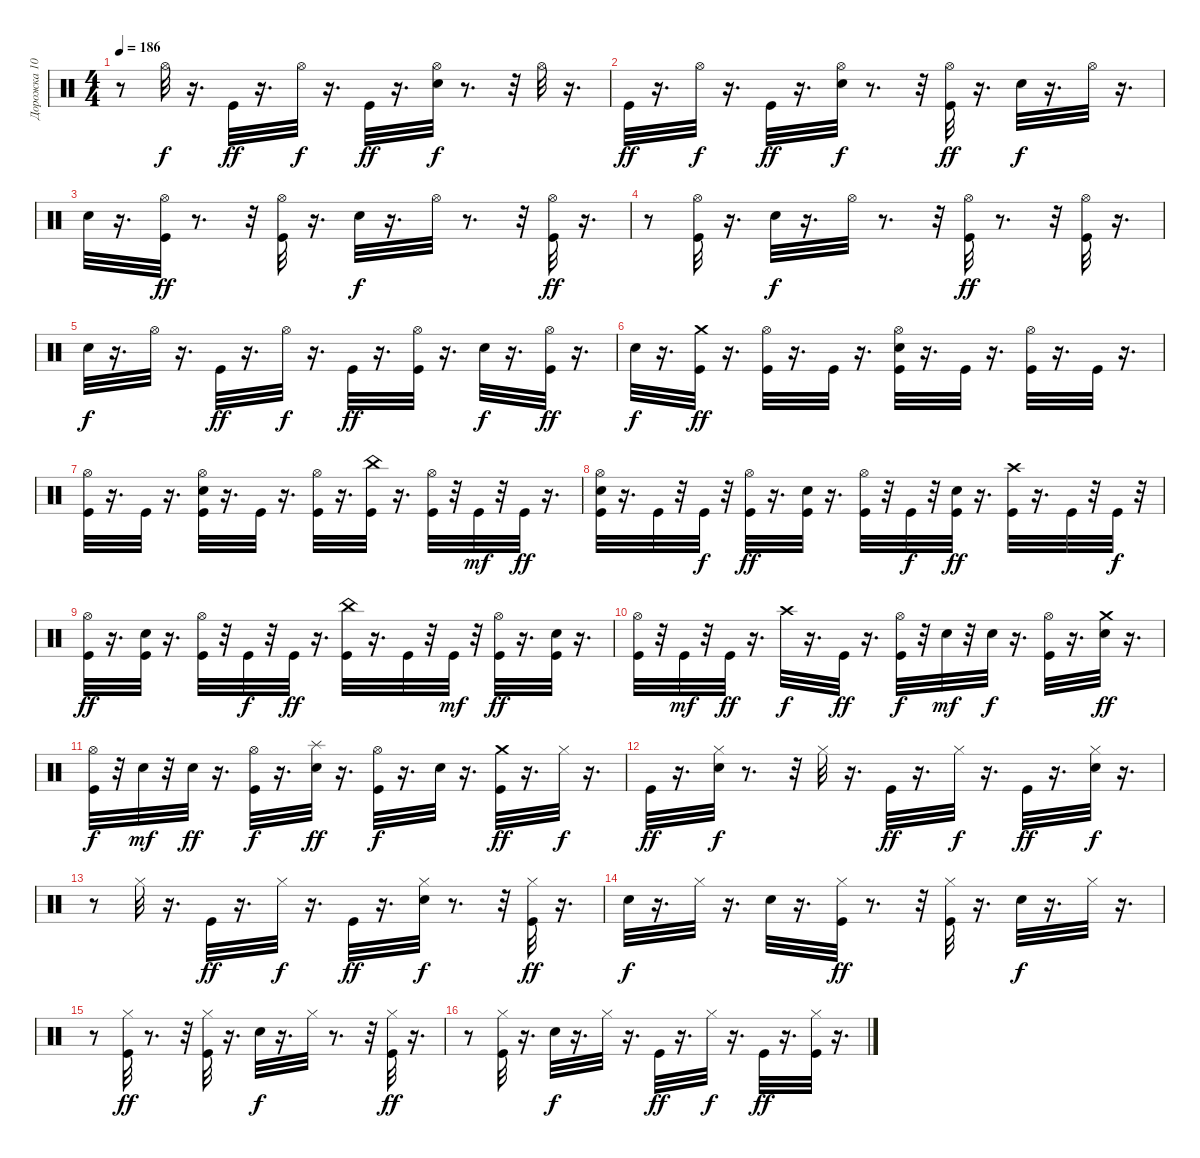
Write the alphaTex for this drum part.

\track ("Дорожка 10" "Дорожка 10") {instrument percussion}
\staff {score}
\articulation defaults
\ts (4 4)
\tempo 186
\clef neutral
\ks c
r.8{dy f} "Hi-Hat (open)".32 r.16{d} "Kick (hit)".32{dy ff} r.16{d} "Hi-Hat (open)".32{dy f} r.16{d} "Kick (hit)".32{dy ff} r.16{d} ("Electric Snare (hit)" "Hi-Hat (open)").32{dy f} r.8{d} r.32 "Hi-Hat (open)".32 r.16{d} |
"Kick (hit)".32{dy ff} r.16{d} "Hi-Hat (open)".32{dy f} r.16{d} "Kick (hit)".32{dy ff} r.16{d} ("Electric Snare (hit)" "Hi-Hat (open)").32{dy f} r.8{d} r.32 ("Kick (hit)" "Hi-Hat (open)").32{dy ff} r.16{d} "Electric Snare (hit)".32{dy f} r.16{d} "Hi-Hat (open)".32 r.16{d} |
"Electric Snare (hit)".32 r.16{d} ("Kick (hit)" "Hi-Hat (open)").32{dy ff} r.8{d} r.32 ("Hi-Hat (open)" "Kick (hit)").32 r.16{d} "Electric Snare (hit)".32{dy f} r.16{d} "Hi-Hat (open)".32 r.8{d} r.32 ("Hi-Hat (open)" "Kick (hit)").32{dy ff} r.16{d} |
r.8 ("Kick (hit)" "Hi-Hat (open)").32 r.16{d} "Electric Snare (hit)".32{dy f} r.16{d} "Hi-Hat (open)".32 r.8{d} r.32 ("Hi-Hat (open)" "Kick (hit)").32{dy ff} r.8{d} r.32 ("Hi-Hat (open)" "Kick (hit)").32 r.16{d} |
"Electric Snare (hit)".32{dy f} r.16{d} "Hi-Hat (open)".32 r.16{d} "Kick (hit)".32{dy ff} r.16{d} "Hi-Hat (open)".32{dy f} r.16{d} "Kick (hit)".32{dy ff} r.16{d} ("Hi-Hat (open)" "Kick (hit)").32 r.16{d} "Electric Snare (hit)".32{dy f} r.16{d} ("Kick (hit)" "Hi-Hat (open)").32{dy ff} r.16{d} |
"Electric Snare (hit)".32{dy f} r.16{d} ("Kick (hit)" "Crash medium (hit)").32{dy ff} r.16{d} ("Kick (hit)" "Hi-Hat (open)").32 r.16{d} "Kick (hit)".32 r.16{d} ("Kick (hit)" "Electric Snare (hit)" "Hi-Hat (open)").32 r.16{d} "Kick (hit)".32 r.16{d} ("Kick (hit)" "Hi-Hat (open)").32 r.16{d} "Kick (hit)".32 r.16{d} |
("Kick (hit)" "Hi-Hat (open)").32 r.16{d} "Kick (hit)".32 r.16{d} ("Electric Snare (hit)" "Hi-Hat (open)" "Kick (hit)").32 r.16{d} "Kick (hit)".32 r.16{d} ("Kick (hit)" "Hi-Hat (open)").32 r.16{d} ("China (hit)" "Kick (hit)").32 r.16{d} ("Kick (hit)" "Hi-Hat (open)").32 r.32 "Kick (hit)".32{dy mf} r.32 "Kick (hit)".32{dy ff} r.16{d} |
("Kick (hit)" "Electric Snare (hit)" "Hi-Hat (open)").32 r.16{d} "Kick (hit)".32 r.32 "Kick (hit)".32{dy f} r.32 ("Kick (hit)" "Hi-Hat (open)").32{dy ff} r.16{d} ("Kick (hit)" "Electric Snare (hit)").32 r.16{d} ("Kick (hit)" "Hi-Hat (open)").32 r.32 "Kick (hit)".32{dy f} r.32 ("Kick (hit)" "Electric Snare (hit)").32{dy ff} r.16{d} ("Crash high (hit)" "Kick (hit)").32 r.16{d} "Kick (hit)".32 r.32 "Kick (hit)".32{dy f} r.32 |
("Hi-Hat (open)" "Kick (hit)").32{dy ff} r.16{d} ("Kick (hit)" "Electric Snare (hit)").32 r.16{d} ("Kick (hit)" "Hi-Hat (open)").32 r.32 "Kick (hit)".32{dy f} r.32 "Kick (hit)".32{dy ff} r.16{d} ("China (hit)" "Kick (hit)").32 r.16{d} "Kick (hit)".32 r.32 "Kick (hit)".32{dy mf} r.32 ("Hi-Hat (open)" "Kick (hit)").32{dy ff} r.16{d} ("Kick (hit)" "Electric Snare (hit)").32 r.16{d} |
("Kick (hit)" "Hi-Hat (open)").32 r.32 "Kick (hit)".32{dy mf} r.32 "Kick (hit)".32{dy ff} r.16{d} "Crash high (hit)".32{dy f} r.16{d} "Kick (hit)".32{dy ff} r.16{d} ("Kick (hit)" "Hi-Hat (open)").32{dy f} r.32 "Electric Snare (hit)".32{dy mf} r.32 "Electric Snare (hit)".32{dy f} r.16{d} ("Kick (hit)" "Hi-Hat (open)").32 r.16{d} ("Crash medium (hit)" "Electric Snare (hit)").32{dy ff} r.16{d} |
("Kick (hit)" "Hi-Hat (open)").32{dy f} r.32 "Electric Snare (hit)".32{dy mf} r.32 "Electric Snare (hit)".32{dy ff} r.16{d} ("Kick (hit)" "Hi-Hat (open)").32{dy f} r.16{d} ("Splash (hit)" "Electric Snare (hit)").32{dy ff} r.16{d} ("Kick (hit)" "Hi-Hat (open)").32{dy f} r.16{d} "Electric Snare (hit)".32 r.16{d} ("Crash medium (hit)" "Kick (hit)").32{dy ff} r.16{d} "Hi-Hat (closed)".32{dy f} r.16{d} |
"Kick (hit)".32{dy ff} r.16{d} ("Hi-Hat (closed)" "Electric Snare (hit)").32{dy f} r.8{d} r.32 "Hi-Hat (closed)".32 r.16{d} "Kick (hit)".32{dy ff} r.16{d} "Hi-Hat (closed)".32{dy f} r.16{d} "Kick (hit)".32{dy ff} r.16{d} ("Electric Snare (hit)" "Hi-Hat (closed)").32{dy f} r.16{d} |
r.8 "Hi-Hat (closed)".32 r.16{d} "Kick (hit)".32{dy ff} r.16{d} "Hi-Hat (closed)".32{dy f} r.16{d} "Kick (hit)".32{dy ff} r.16{d} ("Electric Snare (hit)" "Hi-Hat (closed)").32{dy f} r.8{d} r.32 ("Hi-Hat (closed)" "Kick (hit)").32{dy ff} r.16{d} |
"Electric Snare (hit)".32{dy f} r.16{d} "Hi-Hat (closed)".32 r.16{d} "Electric Snare (hit)".32 r.16{d} ("Hi-Hat (closed)" "Kick (hit)").32{dy ff} r.8{d} r.32 ("Hi-Hat (closed)" "Kick (hit)").32 r.16{d} "Electric Snare (hit)".32{dy f} r.16{d} "Hi-Hat (closed)".32 r.16{d} |
r.8 ("Kick (hit)" "Hi-Hat (closed)").32{dy ff} r.8{d} r.32 ("Kick (hit)" "Hi-Hat (closed)").32 r.16{d} "Electric Snare (hit)".32{dy f} r.16{d} "Hi-Hat (closed)".32 r.8{d} r.32 ("Kick (hit)" "Hi-Hat (closed)").32{dy ff} r.16{d} |
r.8 ("Kick (hit)" "Hi-Hat (closed)").32 r.16{d} "Electric Snare (hit)".32{dy f} r.16{d} "Hi-Hat (closed)".32 r.16{d} "Kick (hit)".32{dy ff} r.16{d} "Hi-Hat (closed)".32{dy f} r.16{d} "Kick (hit)".32{dy ff} r.16{d} ("Hi-Hat (closed)" "Kick (hit)").32 r.16{d}
